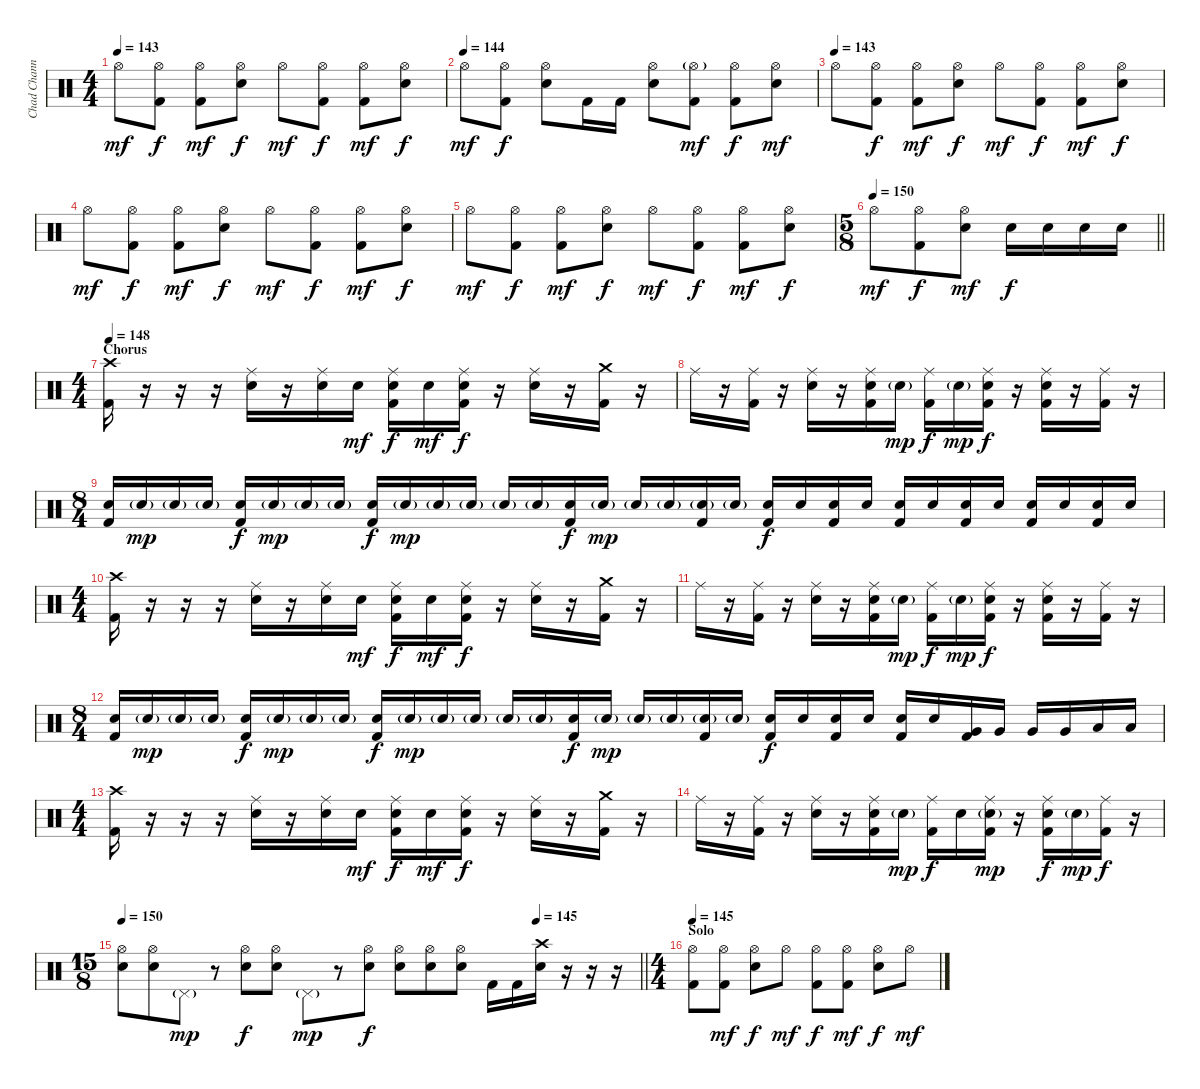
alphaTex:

\track ("Chad Channing" "Chad Chann") {instrument percussion}
\staff {score}
\articulation defaults
\ts (4 4)
\tempo 143
\clef neutral
\ks c "Hi-Hat (open)".8{dy mf}
("Kick (hit) 2" "Hi-Hat (open)").8{dy f} ("Kick (hit) 2" "Hi-Hat (open)").8{dy mf} ("Electric Snare (hit)" "Hi-Hat (open)").8{dy f} "Hi-Hat (open)".8{dy mf} ("Kick (hit) 2" "Hi-Hat (open)").8{dy f} ("Kick (hit) 2" "Hi-Hat (open)").8{dy mf} ("Electric Snare (hit)" "Hi-Hat (open)").8{dy f} |
\tempo (144)
"Hi-Hat (open)".8{dy mf} ("Kick (hit) 2" "Hi-Hat (open)").8{dy f} ("Electric Snare (hit)" "Hi-Hat (open)").8 "Kick (hit) 2".16 "Kick (hit) 2".16 ("Electric Snare (hit)" "Hi-Hat (open)").8 ("Kick (hit) 2" "Hi-Hat (open)"{g}).8{dy mf} ("Kick (hit) 2" "Hi-Hat (open)").8{dy f} ("Electric Snare (hit)" "Hi-Hat (open)").8{dy mf} |
\tempo (143)
"Hi-Hat (open)".8 ("Kick (hit) 2" "Hi-Hat (open)").8{dy f} ("Kick (hit) 2" "Hi-Hat (open)").8{dy mf} ("Electric Snare (hit)" "Hi-Hat (open)").8{dy f} "Hi-Hat (open)".8{dy mf} ("Kick (hit) 2" "Hi-Hat (open)").8{dy f} ("Kick (hit) 2" "Hi-Hat (open)").8{dy mf} ("Electric Snare (hit)" "Hi-Hat (open)").8{dy f} |
"Hi-Hat (open)".8{dy mf} ("Kick (hit) 2" "Hi-Hat (open)").8{dy f} ("Kick (hit) 2" "Hi-Hat (open)").8{dy mf} ("Electric Snare (hit)" "Hi-Hat (open)").8{dy f} "Hi-Hat (open)".8{dy mf} ("Kick (hit) 2" "Hi-Hat (open)").8{dy f} ("Kick (hit) 2" "Hi-Hat (open)").8{dy mf} ("Electric Snare (hit)" "Hi-Hat (open)").8{dy f} |
"Hi-Hat (open)".8{dy mf} ("Kick (hit) 2" "Hi-Hat (open)").8{dy f} ("Kick (hit) 2" "Hi-Hat (open)").8{dy mf} ("Electric Snare (hit)" "Hi-Hat (open)").8{dy f} "Hi-Hat (open)".8{dy mf} ("Kick (hit) 2" "Hi-Hat (open)").8{dy f} ("Kick (hit) 2" "Hi-Hat (open)").8{dy mf} ("Electric Snare (hit)" "Hi-Hat (open)").8{dy f} |
\ts (5 8)
\tempo 150
\barLineRight lightlight "Hi-Hat (open)".8{dy mf}
("Kick (hit) 2" "Hi-Hat (open)").8{dy f} ("Electric Snare (hit)" "Hi-Hat (open)").8{dy mf} "Electric Snare (hit)".16{dy f} "Electric Snare (hit)".16 "Electric Snare (hit)".16 "Electric Snare (hit)".16 |
\ts (4 4)
\section ("" "Chorus")
\tempo 148
("Crash high (hit)" "Kick (hit) 2").16 r.16 r.16 r.16 ("Electric Snare (hit)" "Ride (middle)").16 r.16 ("Electric Snare (hit)" "Ride (middle)").16 "Electric Snare (hit)".16{dy mf} ("Electric Snare (hit)" "Ride (middle)" "Kick (hit) 2").16{dy f} "Electric Snare (hit)".16{dy mf} ("Electric Snare (hit)" "Ride (middle)" "Kick (hit) 2").16{dy f} r.16 ("Electric Snare (hit)" "Ride (middle)").16 r.16 ("Kick (hit) 2" "Crash medium (hit)").16 r.16 |
"Ride (middle)".16 r.16 ("Ride (middle)" "Kick (hit) 2").16 r.16 ("Electric Snare (hit)" "Ride (middle)").16 r.16 ("Electric Snare (hit)" "Ride (middle)" "Kick (hit) 2").16 "Electric Snare (hit)"{g}.16{dy mp} ("Ride (middle)" "Kick (hit) 2").16{dy f} "Electric Snare (hit)"{g}.16{dy mp} ("Electric Snare (hit)" "Ride (middle)" "Kick (hit) 2").16{dy f} r.16 ("Electric Snare (hit)" "Ride (middle)" "Kick (hit) 2").16 r.16 ("Ride (middle)" "Kick (hit) 2").16 r.16 |
\ts (8 4)
("Kick (hit) 2" "Electric Snare (hit)").16 "Electric Snare (hit)"{g}.16{dy mp} "Electric Snare (hit)"{g}.16 "Electric Snare (hit)"{g}.16 ("Kick (hit) 2" "Electric Snare (hit)").16{dy f} "Electric Snare (hit)"{g}.16{dy mp} "Electric Snare (hit)"{g}.16 "Electric Snare (hit)"{g}.16 ("Kick (hit) 2" "Electric Snare (hit)").16{dy f} "Electric Snare (hit)"{g}.16{dy mp} "Electric Snare (hit)"{g}.16 "Electric Snare (hit)"{g}.16 "Electric Snare (hit)"{g}.16 "Electric Snare (hit)"{g}.16 ("Kick (hit) 2" "Electric Snare (hit)").16{dy f} "Electric Snare (hit)"{g}.16{dy mp} "Electric Snare (hit)"{g}.16 "Electric Snare (hit)"{g}.16 ("Kick (hit) 2" "Electric Snare (hit)"{g}).16 "Electric Snare (hit)"{g}.16 ("Kick (hit) 2" "Electric Snare (hit)").16{dy f} "Electric Snare (hit)".16 ("Kick (hit) 2" "Electric Snare (hit)").16 "Electric Snare (hit)".16 ("Kick (hit) 2" "Electric Snare (hit)").16 "Electric Snare (hit)".16 ("Kick (hit) 2" "Electric Snare (hit)").16 "Electric Snare (hit)".16 ("Kick (hit) 2" "Electric Snare (hit)").16 "Electric Snare (hit)".16 ("Kick (hit) 2" "Electric Snare (hit)").16 "Electric Snare (hit)".16 |
\ts (4 4)
("Crash high (hit)" "Kick (hit) 2").16 r.16 r.16 r.16 ("Electric Snare (hit)" "Ride (middle)").16 r.16 ("Electric Snare (hit)" "Ride (middle)").16 "Electric Snare (hit)".16{dy mf} ("Electric Snare (hit)" "Ride (middle)" "Kick (hit) 2").16{dy f} "Electric Snare (hit)".16{dy mf} ("Electric Snare (hit)" "Ride (middle)" "Kick (hit) 2").16{dy f} r.16 ("Electric Snare (hit)" "Ride (middle)").16 r.16 ("Kick (hit) 2" "Crash medium (hit)").16 r.16 |
"Ride (middle)".16 r.16 ("Ride (middle)" "Kick (hit) 2").16 r.16 ("Electric Snare (hit)" "Ride (middle)").16 r.16 ("Electric Snare (hit)" "Ride (middle)" "Kick (hit) 2").16 "Electric Snare (hit)"{g}.16{dy mp} ("Ride (middle)" "Kick (hit) 2").16{dy f} "Electric Snare (hit)"{g}.16{dy mp} ("Electric Snare (hit)" "Ride (middle)" "Kick (hit) 2").16{dy f} r.16 ("Electric Snare (hit)" "Ride (middle)" "Kick (hit) 2").16 r.16 ("Ride (middle)" "Kick (hit) 2").16 r.16 |
\ts (8 4)
("Kick (hit) 2" "Electric Snare (hit)").16 "Electric Snare (hit)"{g}.16{dy mp} "Electric Snare (hit)"{g}.16 "Electric Snare (hit)"{g}.16 ("Kick (hit) 2" "Electric Snare (hit)").16{dy f} "Electric Snare (hit)"{g}.16{dy mp} "Electric Snare (hit)"{g}.16 "Electric Snare (hit)"{g}.16 ("Kick (hit) 2" "Electric Snare (hit)").16{dy f} "Electric Snare (hit)"{g}.16{dy mp} "Electric Snare (hit)"{g}.16 "Electric Snare (hit)"{g}.16 "Electric Snare (hit)"{g}.16 "Electric Snare (hit)"{g}.16 ("Kick (hit) 2" "Electric Snare (hit)").16{dy f} "Electric Snare (hit)"{g}.16{dy mp} "Electric Snare (hit)"{g}.16 "Electric Snare (hit)"{g}.16 ("Kick (hit) 2" "Electric Snare (hit)"{g}).16 "Electric Snare (hit)"{g}.16 ("Kick (hit) 2" "Electric Snare (hit)").16{dy f} "Electric Snare (hit)".16 ("Kick (hit) 2" "Electric Snare (hit)").16 "Electric Snare (hit)".16 ("Kick (hit) 2" "Electric Snare (hit)").16 "Electric Snare (hit)".16 ("Kick (hit) 2" "Very Low Tom (hit)").16 "Very Low Tom (hit)".16 "Very Low Tom (hit)".16 "Very Low Tom (hit)".16 "Low Floor Tom (hit)".16 "Low Floor Tom (hit)".16 |
\ts (4 4)
("Crash high (hit)" "Kick (hit) 2").16 r.16 r.16 r.16 ("Electric Snare (hit)" "Ride (middle)").16 r.16 ("Electric Snare (hit)" "Ride (middle)").16 "Electric Snare (hit)".16{dy mf} ("Electric Snare (hit)" "Ride (middle)" "Kick (hit) 2").16{dy f} "Electric Snare (hit)".16{dy mf} ("Electric Snare (hit)" "Ride (middle)" "Kick (hit) 2").16{dy f} r.16 ("Electric Snare (hit)" "Ride (middle)").16 r.16 ("Kick (hit) 2" "Crash medium (hit)").16 r.16 |
"Ride (middle)".16 r.16 ("Ride (middle)" "Kick (hit) 2").16 r.16 ("Electric Snare (hit)" "Ride (middle)").16 r.16 ("Electric Snare (hit)" "Ride (middle)" "Kick (hit) 2").16 "Electric Snare (hit)"{g}.16{dy mp} ("Ride (middle)" "Kick (hit) 2").16{dy f} "Electric Snare (hit)".16 ("Electric Snare (hit)"{g} "Ride (middle)" "Kick (hit) 2").16{dy mp} r.16 ("Electric Snare (hit)" "Ride (middle)" "Kick (hit) 2").16{dy f} "Electric Snare (hit)"{g}.16{dy mp} ("Ride (middle)" "Kick (hit) 2").16{dy f} r.16 |
\ts (15 8)
\tempo 150
\tempo (145 0.8)
\barLineRight lightlight
("Electric Snare (hit)" "Hi-Hat (open)").8 ("Electric Snare (hit)" "Hi-Hat (open)").8 "Pedal Hi-Hat (hit)"{g}.8{dy mp} r.8 ("Electric Snare (hit)" "Hi-Hat (open)").8{dy f} ("Electric Snare (hit)" "Hi-Hat (open)").8 "Pedal Hi-Hat (hit)"{g}.8{dy mp} r.8 ("Electric Snare (hit)" "Hi-Hat (open)").8{dy f} ("Electric Snare (hit)" "Hi-Hat (open)").8 ("Electric Snare (hit)" "Hi-Hat (open)").8 ("Electric Snare (hit)" "Hi-Hat (open)").8 "Kick (hit) 2".16 "Kick (hit) 2".16 ("Electric Snare (hit)" "Crash high (hit)").16 r.16 r.16 r.16 |
\ts (4 4)
\section ("" "Solo")
\tempo 145
("Kick (hit) 2" "Hi-Hat (open)").8 ("Kick (hit) 2" "Hi-Hat (open)").8{dy mf} ("Electric Snare (hit)" "Hi-Hat (open)").8{dy f} "Hi-Hat (open)".8{dy mf} ("Kick (hit) 2" "Hi-Hat (open)").8{dy f} ("Kick (hit) 2" "Hi-Hat (open)").8{dy mf} ("Electric Snare (hit)" "Hi-Hat (open)").8{dy f} "Hi-Hat (open)".8{dy mf}
